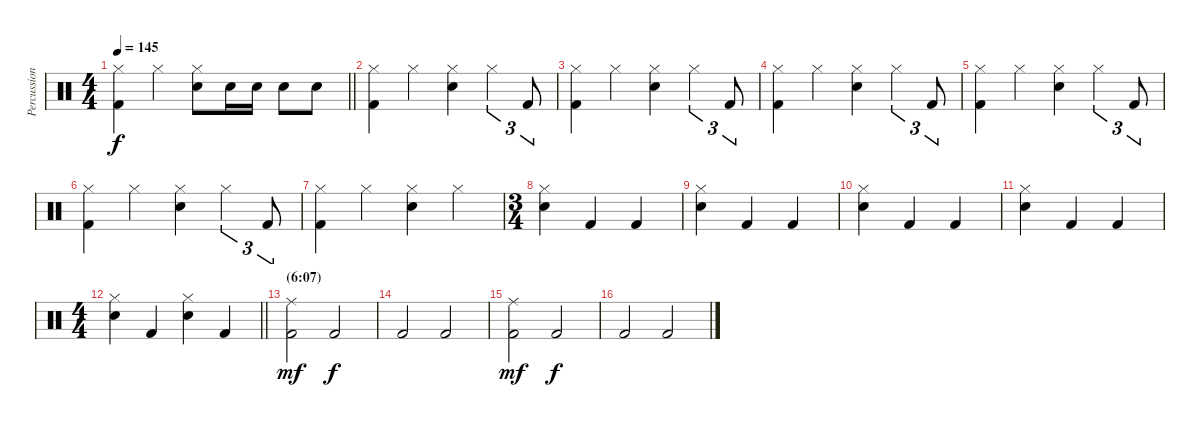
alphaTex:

\track ("Percussion" "Percussion") {instrument percussion}
\staff {score}
\articulation defaults
\ts (4 4)
\tempo 145
\clef neutral
\barLineRight lightlight
\ks c
("Hi-Hat (closed)" "Kick (hit) 2").4{dy f} "Hi-Hat (closed)".4 ("Hi-Hat (closed)" "Electric Snare (hit)").8 "Electric Snare (hit)".16 "Electric Snare (hit)".16 "Electric Snare (hit)".8 "Electric Snare (hit)".8 |
("Hi-Hat (closed)" "Kick (hit) 2").4 "Hi-Hat (closed)".4 ("Hi-Hat (closed)" "Electric Snare (hit)").4 "Hi-Hat (closed)".4{tu (3 2)} "Kick (hit) 2".8{tu (3 2)} |
("Hi-Hat (closed)" "Kick (hit) 2").4 "Hi-Hat (closed)".4 ("Hi-Hat (closed)" "Electric Snare (hit)").4 "Hi-Hat (closed)".4{tu (3 2)} "Kick (hit) 2".8{tu (3 2)} |
("Hi-Hat (closed)" "Kick (hit) 2").4 "Hi-Hat (closed)".4 ("Hi-Hat (closed)" "Electric Snare (hit)").4 "Hi-Hat (closed)".4{tu (3 2)} "Kick (hit) 2".8{tu (3 2)} |
("Hi-Hat (closed)" "Kick (hit) 2").4 "Hi-Hat (closed)".4 ("Hi-Hat (closed)" "Electric Snare (hit)").4 "Hi-Hat (closed)".4{tu (3 2)} "Kick (hit) 2".8{tu (3 2)} |
("Hi-Hat (closed)" "Kick (hit) 2").4 "Hi-Hat (closed)".4 ("Hi-Hat (closed)" "Electric Snare (hit)").4 "Hi-Hat (closed)".4{tu (3 2)} "Kick (hit) 2".8{tu (3 2)} |
("Hi-Hat (closed)" "Kick (hit) 2").4 "Hi-Hat (closed)".4 ("Hi-Hat (closed)" "Electric Snare (hit)").4 "Hi-Hat (closed)".4 |
\ts (3 4)
("Hi-Hat (closed)" "Electric Snare (hit)").4 "Kick (hit) 2".4 "Kick (hit) 2".4 |
("Hi-Hat (closed)" "Electric Snare (hit)").4 "Kick (hit) 2".4 "Kick (hit) 2".4 |
("Hi-Hat (closed)" "Electric Snare (hit)").4 "Kick (hit) 2".4 "Kick (hit) 2".4 |
("Hi-Hat (closed)" "Electric Snare (hit)").4 "Kick (hit) 2".4 "Kick (hit) 2".4 |
\ts (4 4)
\barLineRight lightlight
("Hi-Hat (closed)" "Electric Snare (hit)").4 "Kick (hit) 2".4 ("Hi-Hat (closed)" "Electric Snare (hit)").4 "Kick (hit) 2".4 |
\section ("" "(6:07)")
("Ride (middle)" "Kick (hit) 2").2{dy mf} "Kick (hit) 2".2{dy f} |
"Kick (hit) 2".2 "Kick (hit) 2".2 |
("Ride (middle)" "Kick (hit) 2").2{dy mf} "Kick (hit) 2".2{dy f} |
"Kick (hit) 2".2 "Kick (hit) 2".2
